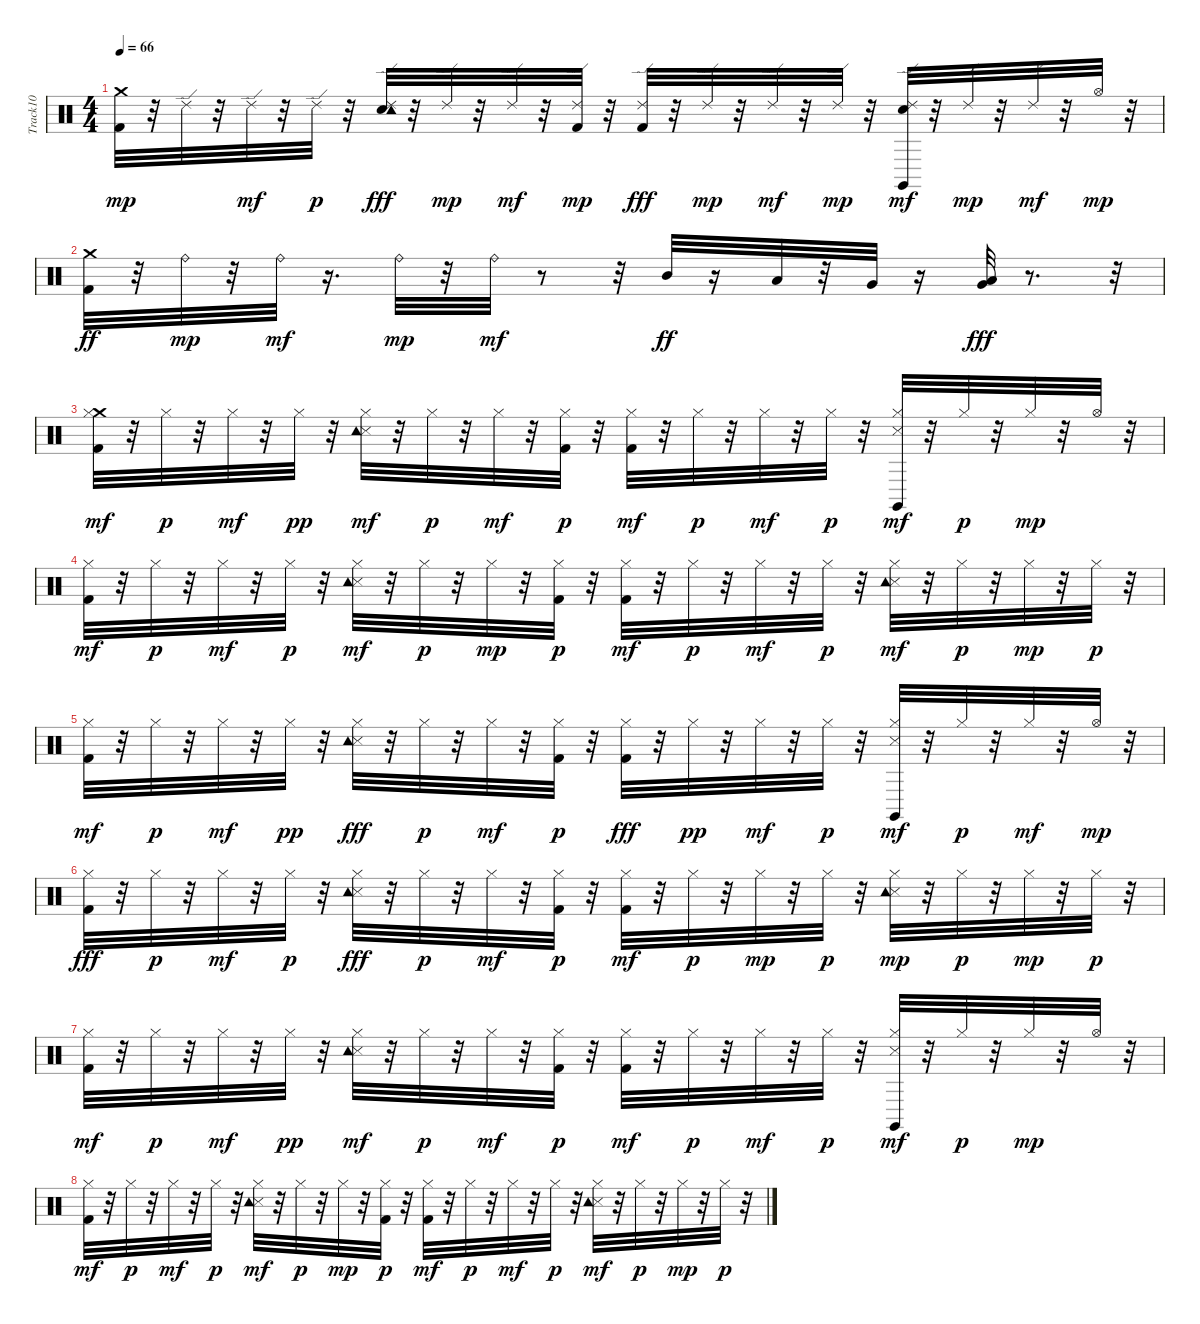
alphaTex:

\track ("Track10" "Track10") {instrument percussion}
\staff {score}
\articulation defaults
\ts (4 4)
\tempo 66
\clef neutral
\ks c
("Kick (hit) 2" "Crash medium (hit)").32{dy mp} r.32 "Ride (edge) 2".32 r.32 "Ride (edge) 2".32{dy mf} r.32 "Ride (edge) 2".32{dy p} r.32 ("Snare (hit) 2" "Ride (edge) 2" "Tambourine (hit)").32{dy fff} r.32 "Ride (edge) 2".32{dy mp} r.32 "Ride (edge) 2".32{dy mf} r.32 ("Kick (hit) 2" "Ride (edge) 2").32{dy mp} r.32 ("Kick (hit) 2" "Ride (edge) 2").32{dy fff} r.32 "Ride (edge) 2".32{dy mp} r.32 "Ride (edge) 2".32{dy mf} r.32 "Ride (edge) 2".32{dy mp} r.32 ("Snare (hit) 2" "Ride (edge) 2" "Claves (hit)").32{dy mf} r.32 "Ride (edge) 2".32{dy mp} r.32 "Ride (edge) 2".32{dy mf} r.32 "Hi-Hat (open)".32{dy mp} r.32 |
("Kick (hit) 2" "Crash medium (hit)").32{dy ff} r.32 "Ride (bell)".32{dy mp} r.32 "Ride (bell)".32{dy mf} r.16{d} "Ride (bell)".32{dy mp} r.32 "Ride (bell)".32{dy mf} r.8 r.32 "Mid Tom (hit)".32{dy ff} r.16 "Low Tom (hit)".32 r.32 "Very Low Tom (hit)".32 r.16 ("Very Low Tom (hit)" "Low Floor Tom (hit)").32{dy fff} r.8{d} r.32 |
("Crash medium (hit)" "Kick (hit) 2" "Hi-Hat (closed)").32{dy mf} r.32 "Hi-Hat (closed)".32{dy p} r.32 "Hi-Hat (closed)".32{dy mf} r.32 "Hi-Hat (closed)".32{dy pp} r.32 ("Snare (side stick) 3" "Tambourine (hit)" "Hi-Hat (closed)").32{dy mf} r.32 "Hi-Hat (closed)".32{dy p} r.32 "Hi-Hat (closed)".32{dy mf} r.32 ("Kick (hit) 2" "Hi-Hat (closed)").32{dy p} r.32 ("Kick (hit) 2" "Hi-Hat (closed)").32{dy mf} r.32 "Hi-Hat (closed)".32{dy p} r.32 "Hi-Hat (closed)".32{dy mf} r.32 "Hi-Hat (closed)".32{dy p} r.32 ("Snare (side stick) 3" "Claves (hit)" "Hi-Hat (closed)").32{dy mf} r.32 "Hi-Hat (closed)".32{dy p} r.32 "Hi-Hat (closed)".32{dy mp} r.32 "Hi-Hat (open)".32 r.32 |
("Kick (hit) 2" "Hi-Hat (closed)").32{dy mf} r.32 "Hi-Hat (closed)".32{dy p} r.32 "Hi-Hat (closed)".32{dy mf} r.32 "Hi-Hat (closed)".32{dy p} r.32 ("Snare (side stick) 3" "Tambourine (hit)" "Hi-Hat (closed)").32{dy mf} r.32 "Hi-Hat (closed)".32{dy p} r.32 "Hi-Hat (closed)".32{dy mp} r.32 ("Kick (hit) 2" "Hi-Hat (closed)").32{dy p} r.32 ("Kick (hit) 2" "Hi-Hat (closed)").32{dy mf} r.32 "Hi-Hat (closed)".32{dy p} r.32 "Hi-Hat (closed)".32{dy mf} r.32 "Hi-Hat (closed)".32{dy p} r.32 ("Snare (side stick) 3" "Tambourine (hit)" "Hi-Hat (closed)").32{dy mf} r.32 "Hi-Hat (closed)".32{dy p} r.32 "Hi-Hat (closed)".32{dy mp} r.32 "Hi-Hat (closed)".32{dy p} r.32 |
("Kick (hit) 2" "Hi-Hat (closed)").32{dy mf} r.32 "Hi-Hat (closed)".32{dy p} r.32 "Hi-Hat (closed)".32{dy mf} r.32 "Hi-Hat (closed)".32{dy pp} r.32 ("Snare (side stick) 3" "Tambourine (hit)" "Hi-Hat (closed)").32{dy fff} r.32 "Hi-Hat (closed)".32{dy p} r.32 "Hi-Hat (closed)".32{dy mf} r.32 ("Kick (hit) 2" "Hi-Hat (closed)").32{dy p} r.32 ("Kick (hit) 2" "Hi-Hat (closed)").32{dy fff} r.32 "Hi-Hat (closed)".32{dy pp} r.32 "Hi-Hat (closed)".32{dy mf} r.32 "Hi-Hat (closed)".32{dy p} r.32 ("Snare (side stick) 3" "Claves (hit)" "Hi-Hat (closed)").32{dy mf} r.32 "Hi-Hat (closed)".32{dy p} r.32 "Hi-Hat (closed)".32{dy mf} r.32 "Hi-Hat (open)".32{dy mp} r.32 |
("Kick (hit) 2" "Hi-Hat (closed)").32{dy fff} r.32 "Hi-Hat (closed)".32{dy p} r.32 "Hi-Hat (closed)".32{dy mf} r.32 "Hi-Hat (closed)".32{dy p} r.32 ("Snare (side stick) 3" "Tambourine (hit)" "Hi-Hat (closed)").32{dy fff} r.32 "Hi-Hat (closed)".32{dy p} r.32 "Hi-Hat (closed)".32{dy mf} r.32 ("Kick (hit) 2" "Hi-Hat (closed)").32{dy p} r.32 ("Kick (hit) 2" "Hi-Hat (closed)").32{dy mf} r.32 "Hi-Hat (closed)".32{dy p} r.32 "Hi-Hat (closed)".32{dy mp} r.32 "Hi-Hat (closed)".32{dy p} r.32 ("Snare (side stick) 3" "Tambourine (hit)" "Hi-Hat (closed)").32{dy mp} r.32 "Hi-Hat (closed)".32{dy p} r.32 "Hi-Hat (closed)".32{dy mp} r.32 "Hi-Hat (closed)".32{dy p} r.32 |
("Kick (hit) 2" "Hi-Hat (closed)").32{dy mf} r.32 "Hi-Hat (closed)".32{dy p} r.32 "Hi-Hat (closed)".32{dy mf} r.32 "Hi-Hat (closed)".32{dy pp} r.32 ("Snare (side stick) 3" "Tambourine (hit)" "Hi-Hat (closed)").32{dy mf} r.32 "Hi-Hat (closed)".32{dy p} r.32 "Hi-Hat (closed)".32{dy mf} r.32 ("Kick (hit) 2" "Hi-Hat (closed)").32{dy p} r.32 ("Kick (hit) 2" "Hi-Hat (closed)").32{dy mf} r.32 "Hi-Hat (closed)".32{dy p} r.32 "Hi-Hat (closed)".32{dy mf} r.32 "Hi-Hat (closed)".32{dy p} r.32 ("Snare (side stick) 3" "Claves (hit)" "Hi-Hat (closed)").32{dy mf} r.32 "Hi-Hat (closed)".32{dy p} r.32 "Hi-Hat (closed)".32{dy mp} r.32 "Hi-Hat (open)".32 r.32 |
("Kick (hit) 2" "Hi-Hat (closed)").32{dy mf} r.32 "Hi-Hat (closed)".32{dy p} r.32 "Hi-Hat (closed)".32{dy mf} r.32 "Hi-Hat (closed)".32{dy p} r.32 ("Snare (side stick) 3" "Tambourine (hit)" "Hi-Hat (closed)").32{dy mf} r.32 "Hi-Hat (closed)".32{dy p} r.32 "Hi-Hat (closed)".32{dy mp} r.32 ("Kick (hit) 2" "Hi-Hat (closed)").32{dy p} r.32 ("Kick (hit) 2" "Hi-Hat (closed)").32{dy mf} r.32 "Hi-Hat (closed)".32{dy p} r.32 "Hi-Hat (closed)".32{dy mf} r.32 "Hi-Hat (closed)".32{dy p} r.32 ("Snare (side stick) 3" "Tambourine (hit)" "Hi-Hat (closed)").32{dy mf} r.32 "Hi-Hat (closed)".32{dy p} r.32 "Hi-Hat (closed)".32{dy mp} r.32 "Hi-Hat (closed)".32{dy p} r.32
